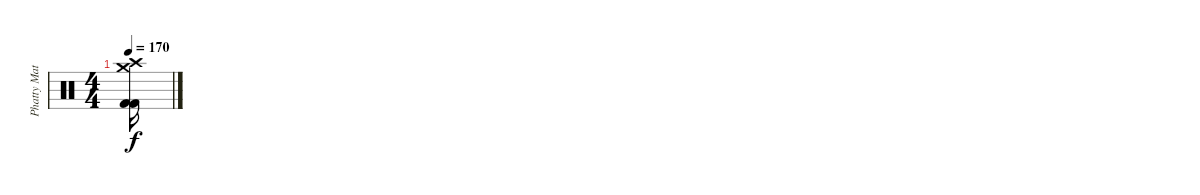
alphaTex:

\track ("Phatty Matty Withrow (Drums)" "Phatty Mat") {instrument percussion}
\staff {score}
\articulation defaults
\ts (4 4)
\tempo 170
\clef neutral
\ks c
("Crash medium (hit)" "Crash high (hit)" "Kick (hit) 2" "Kick (hit) 2").16{dy f}
